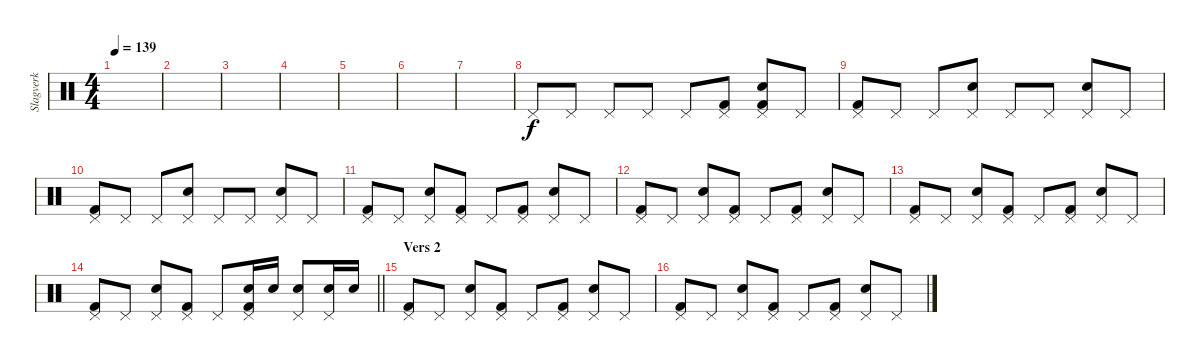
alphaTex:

\track ("Slagverk" "Slagverk") {instrument percussion}
\staff {score}
\articulation defaults
\ts (4 4)
\tempo 139
\clef neutral
\ks c
|
|
|
|
|
|
|
"Pedal Hi-Hat (hit)".8 "Pedal Hi-Hat (hit)".8 "Pedal Hi-Hat (hit)".8 "Pedal Hi-Hat (hit)".8 "Pedal Hi-Hat (hit)".8 ("Pedal Hi-Hat (hit)" "Kick (hit) 2").8 ("Pedal Hi-Hat (hit)" "Snare (hit) 2" "Kick (hit) 2").8 "Pedal Hi-Hat (hit)".8 |
("Pedal Hi-Hat (hit)" "Kick (hit) 2").8 "Pedal Hi-Hat (hit)".8 "Pedal Hi-Hat (hit)".8 ("Pedal Hi-Hat (hit)" "Snare (hit) 2").8 "Pedal Hi-Hat (hit)".8 "Pedal Hi-Hat (hit)".8 ("Pedal Hi-Hat (hit)" "Snare (hit) 2").8 "Pedal Hi-Hat (hit)".8 |
("Pedal Hi-Hat (hit)" "Kick (hit) 2").8 "Pedal Hi-Hat (hit)".8 "Pedal Hi-Hat (hit)".8 ("Pedal Hi-Hat (hit)" "Snare (hit) 2").8 "Pedal Hi-Hat (hit)".8 "Pedal Hi-Hat (hit)".8 ("Pedal Hi-Hat (hit)" "Snare (hit) 2").8 "Pedal Hi-Hat (hit)".8 |
("Pedal Hi-Hat (hit)" "Kick (hit) 2").8 "Pedal Hi-Hat (hit)".8 ("Pedal Hi-Hat (hit)" "Snare (hit) 2").8 ("Pedal Hi-Hat (hit)" "Kick (hit) 2").8 "Pedal Hi-Hat (hit)".8 ("Pedal Hi-Hat (hit)" "Kick (hit) 2").8 ("Pedal Hi-Hat (hit)" "Snare (hit) 2").8 "Pedal Hi-Hat (hit)".8 |
("Pedal Hi-Hat (hit)" "Kick (hit) 2").8 "Pedal Hi-Hat (hit)".8 ("Pedal Hi-Hat (hit)" "Snare (hit) 2").8 ("Pedal Hi-Hat (hit)" "Kick (hit) 2").8 "Pedal Hi-Hat (hit)".8 ("Pedal Hi-Hat (hit)" "Kick (hit) 2").8 ("Pedal Hi-Hat (hit)" "Snare (hit) 2").8 "Pedal Hi-Hat (hit)".8 |
("Pedal Hi-Hat (hit)" "Kick (hit) 2").8 "Pedal Hi-Hat (hit)".8 ("Pedal Hi-Hat (hit)" "Snare (hit) 2").8 ("Pedal Hi-Hat (hit)" "Kick (hit) 2").8 "Pedal Hi-Hat (hit)".8 ("Pedal Hi-Hat (hit)" "Kick (hit) 2").8 ("Pedal Hi-Hat (hit)" "Snare (hit) 2").8 "Pedal Hi-Hat (hit)".8 |
\barLineRight lightlight
("Pedal Hi-Hat (hit)" "Kick (hit) 2").8 "Pedal Hi-Hat (hit)".8 ("Pedal Hi-Hat (hit)" "Snare (hit) 2").8 ("Pedal Hi-Hat (hit)" "Kick (hit) 2").8 "Pedal Hi-Hat (hit)".8 ("Pedal Hi-Hat (hit)" "Snare (hit) 2" "Kick (hit) 2").16 "Snare (hit) 2".16 ("Pedal Hi-Hat (hit)" "Snare (hit) 2").8 ("Pedal Hi-Hat (hit)" "Snare (hit) 2").16 "Snare (hit) 2".16 |
\section ("" "Vers 2")
("Pedal Hi-Hat (hit)" "Kick (hit) 2").8 "Pedal Hi-Hat (hit)".8 ("Pedal Hi-Hat (hit)" "Snare (hit) 2").8 ("Pedal Hi-Hat (hit)" "Kick (hit) 2").8 "Pedal Hi-Hat (hit)".8 ("Pedal Hi-Hat (hit)" "Kick (hit) 2").8 ("Pedal Hi-Hat (hit)" "Snare (hit) 2").8 "Pedal Hi-Hat (hit)".8 |
("Pedal Hi-Hat (hit)" "Kick (hit) 2").8 "Pedal Hi-Hat (hit)".8 ("Pedal Hi-Hat (hit)" "Snare (hit) 2").8 ("Pedal Hi-Hat (hit)" "Kick (hit) 2").8 "Pedal Hi-Hat (hit)".8 ("Pedal Hi-Hat (hit)" "Kick (hit) 2").8 ("Pedal Hi-Hat (hit)" "Snare (hit) 2").8 "Pedal Hi-Hat (hit)".8
